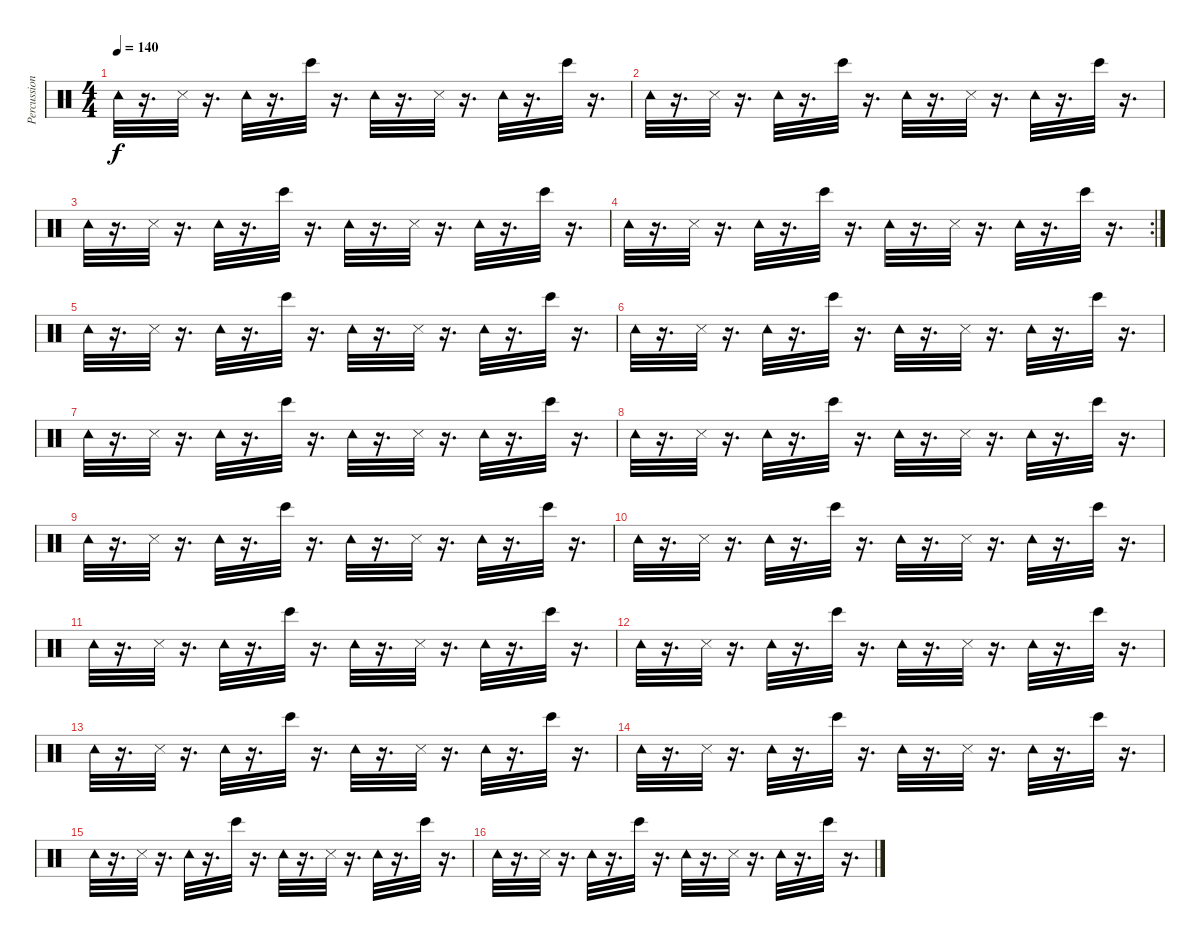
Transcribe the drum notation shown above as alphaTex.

\track ("Percussion" "Percussion") {instrument percussion}
\staff {score}
\articulation defaults
\ts (4 4)
\tempo 140
\clef neutral
\ks c "Tambourine (hit)".32{dy f}
r.16{d} "Metronome (hit)".32 r.16{d} "Tambourine (hit)".32 r.16{d} "Bongo High (hit)".32 r.16{d} "Tambourine (hit)".32 r.16{d} "Metronome (hit)".32 r.16{d} "Tambourine (hit)".32 r.16{d} "Bongo High (hit)".32 r.16{d} |
"Tambourine (hit)".32 r.16{d} "Metronome (hit)".32 r.16{d} "Tambourine (hit)".32 r.16{d} "Bongo High (hit)".32 r.16{d} "Tambourine (hit)".32 r.16{d} "Metronome (hit)".32 r.16{d} "Tambourine (hit)".32 r.16{d} "Bongo High (hit)".32 r.16{d} |
"Tambourine (hit)".32 r.16{d} "Metronome (hit)".32 r.16{d} "Tambourine (hit)".32 r.16{d} "Bongo High (hit)".32 r.16{d} "Tambourine (hit)".32 r.16{d} "Metronome (hit)".32 r.16{d} "Tambourine (hit)".32 r.16{d} "Bongo High (hit)".32 r.16{d} |
\rc 2 "Tambourine (hit)".32
r.16{d} "Metronome (hit)".32 r.16{d} "Tambourine (hit)".32 r.16{d} "Bongo High (hit)".32 r.16{d} "Tambourine (hit)".32 r.16{d} "Metronome (hit)".32 r.16{d} "Tambourine (hit)".32 r.16{d} "Bongo High (hit)".32 r.16{d} |
"Tambourine (hit)".32 r.16{d} "Metronome (hit)".32 r.16{d} "Tambourine (hit)".32 r.16{d} "Bongo High (hit)".32 r.16{d} "Tambourine (hit)".32 r.16{d} "Metronome (hit)".32 r.16{d} "Tambourine (hit)".32 r.16{d} "Bongo High (hit)".32 r.16{d} |
"Tambourine (hit)".32 r.16{d} "Metronome (hit)".32 r.16{d} "Tambourine (hit)".32 r.16{d} "Bongo High (hit)".32 r.16{d} "Tambourine (hit)".32 r.16{d} "Metronome (hit)".32 r.16{d} "Tambourine (hit)".32 r.16{d} "Bongo High (hit)".32 r.16{d} |
"Tambourine (hit)".32 r.16{d} "Metronome (hit)".32 r.16{d} "Tambourine (hit)".32 r.16{d} "Bongo High (hit)".32 r.16{d} "Tambourine (hit)".32 r.16{d} "Metronome (hit)".32 r.16{d} "Tambourine (hit)".32 r.16{d} "Bongo High (hit)".32 r.16{d} |
"Tambourine (hit)".32 r.16{d} "Metronome (hit)".32 r.16{d} "Tambourine (hit)".32 r.16{d} "Bongo High (hit)".32 r.16{d} "Tambourine (hit)".32 r.16{d} "Metronome (hit)".32 r.16{d} "Tambourine (hit)".32 r.16{d} "Bongo High (hit)".32 r.16{d} |
"Tambourine (hit)".32 r.16{d} "Metronome (hit)".32 r.16{d} "Tambourine (hit)".32 r.16{d} "Bongo High (hit)".32 r.16{d} "Tambourine (hit)".32 r.16{d} "Metronome (hit)".32 r.16{d} "Tambourine (hit)".32 r.16{d} "Bongo High (hit)".32 r.16{d} |
"Tambourine (hit)".32 r.16{d} "Metronome (hit)".32 r.16{d} "Tambourine (hit)".32 r.16{d} "Bongo High (hit)".32 r.16{d} "Tambourine (hit)".32 r.16{d} "Metronome (hit)".32 r.16{d} "Tambourine (hit)".32 r.16{d} "Bongo High (hit)".32 r.16{d} |
"Tambourine (hit)".32 r.16{d} "Metronome (hit)".32 r.16{d} "Tambourine (hit)".32 r.16{d} "Bongo High (hit)".32 r.16{d} "Tambourine (hit)".32 r.16{d} "Metronome (hit)".32 r.16{d} "Tambourine (hit)".32 r.16{d} "Bongo High (hit)".32 r.16{d} |
"Tambourine (hit)".32 r.16{d} "Metronome (hit)".32 r.16{d} "Tambourine (hit)".32 r.16{d} "Bongo High (hit)".32 r.16{d} "Tambourine (hit)".32 r.16{d} "Metronome (hit)".32 r.16{d} "Tambourine (hit)".32 r.16{d} "Bongo High (hit)".32 r.16{d} |
"Tambourine (hit)".32 r.16{d} "Metronome (hit)".32 r.16{d} "Tambourine (hit)".32 r.16{d} "Bongo High (hit)".32 r.16{d} "Tambourine (hit)".32 r.16{d} "Metronome (hit)".32 r.16{d} "Tambourine (hit)".32 r.16{d} "Bongo High (hit)".32 r.16{d} |
"Tambourine (hit)".32 r.16{d} "Metronome (hit)".32 r.16{d} "Tambourine (hit)".32 r.16{d} "Bongo High (hit)".32 r.16{d} "Tambourine (hit)".32 r.16{d} "Metronome (hit)".32 r.16{d} "Tambourine (hit)".32 r.16{d} "Bongo High (hit)".32 r.16{d} |
"Tambourine (hit)".32 r.16{d} "Metronome (hit)".32 r.16{d} "Tambourine (hit)".32 r.16{d} "Bongo High (hit)".32 r.16{d} "Tambourine (hit)".32 r.16{d} "Metronome (hit)".32 r.16{d} "Tambourine (hit)".32 r.16{d} "Bongo High (hit)".32 r.16{d} |
"Tambourine (hit)".32 r.16{d} "Metronome (hit)".32 r.16{d} "Tambourine (hit)".32 r.16{d} "Bongo High (hit)".32 r.16{d} "Tambourine (hit)".32 r.16{d} "Metronome (hit)".32 r.16{d} "Tambourine (hit)".32 r.16{d} "Bongo High (hit)".32 r.16{d}
